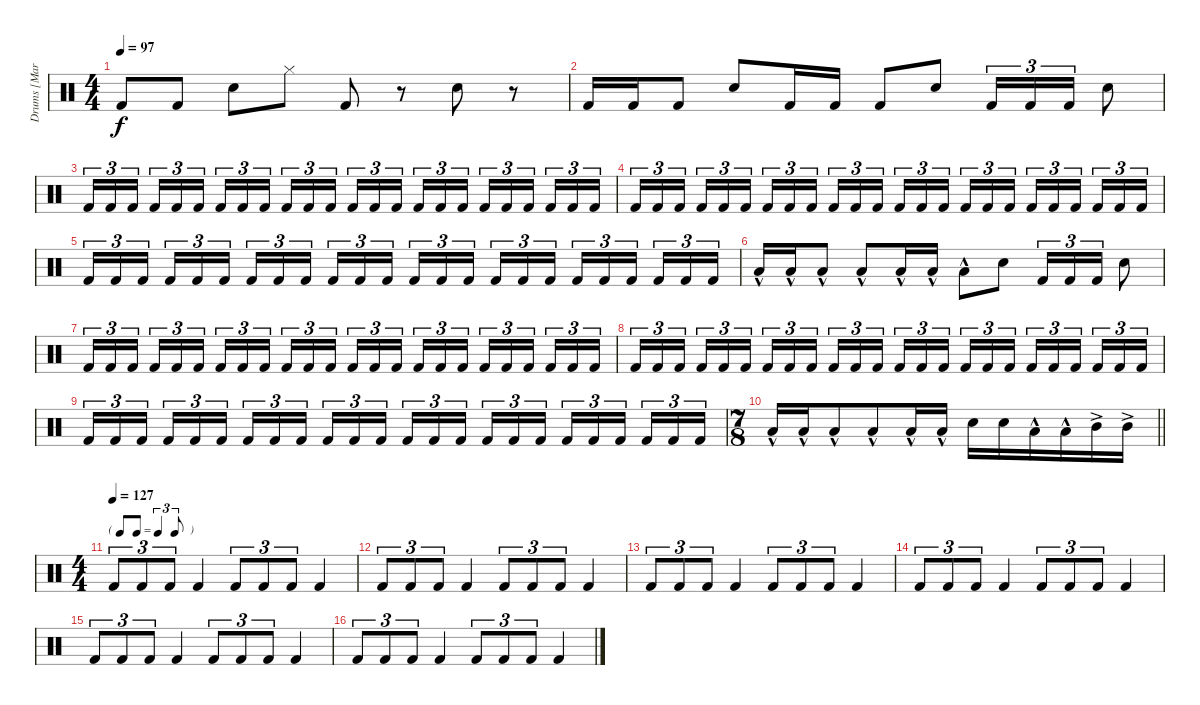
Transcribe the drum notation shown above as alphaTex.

\track ("Drums [Martin Lopez]" "Drums [Mar") {instrument percussion}
\staff {score}
\articulation defaults
\ts (4 4)
\tempo 97
\clef neutral
\ks c "Kick (hit) 2".8{dy f} "Kick (hit) 2".8 "Snare (hit) 2".8 "Hi-Hat (closed)".8 "Kick (hit) 2".8
r.8 "Snare (hit) 2".8 r.8 |
"Kick (hit) 2".16 "Kick (hit) 2".16 "Kick (hit) 2".8 "Snare (hit) 2".8 "Kick (hit) 2".16 "Kick (hit) 2".16 "Kick (hit) 2".8 "Snare (hit) 2".8 "Kick (hit) 2".16{tu (3 2)} "Kick (hit) 2".16{tu (3 2)} "Kick (hit) 2".16{tu (3 2)} "Snare (hit) 2".8 |
"Kick (hit) 2".16{tu (3 2)} "Kick (hit) 2".16{tu (3 2)} "Kick (hit) 2".16{tu (3 2) beam splitsecondary} "Kick (hit) 2".16{tu (3 2)} "Kick (hit) 2".16{tu (3 2)} "Kick (hit) 2".16{tu (3 2)} "Kick (hit) 2".16{tu (3 2)} "Kick (hit) 2".16{tu (3 2)} "Kick (hit) 2".16{tu (3 2) beam splitsecondary} "Kick (hit) 2".16{tu (3 2)} "Kick (hit) 2".16{tu (3 2)} "Kick (hit) 2".16{tu (3 2)} "Kick (hit) 2".16{tu (3 2)} "Kick (hit) 2".16{tu (3 2)} "Kick (hit) 2".16{tu (3 2) beam splitsecondary} "Kick (hit) 2".16{tu (3 2)} "Kick (hit) 2".16{tu (3 2)} "Kick (hit) 2".16{tu (3 2)} "Kick (hit) 2".16{tu (3 2)} "Kick (hit) 2".16{tu (3 2)} "Kick (hit) 2".16{tu (3 2) beam splitsecondary} "Kick (hit) 2".16{tu (3 2)} "Kick (hit) 2".16{tu (3 2)} "Kick (hit) 2".16{tu (3 2)} |
"Kick (hit) 2".16{tu (3 2)} "Kick (hit) 2".16{tu (3 2)} "Kick (hit) 2".16{tu (3 2) beam splitsecondary} "Kick (hit) 2".16{tu (3 2)} "Kick (hit) 2".16{tu (3 2)} "Kick (hit) 2".16{tu (3 2)} "Kick (hit) 2".16{tu (3 2)} "Kick (hit) 2".16{tu (3 2)} "Kick (hit) 2".16{tu (3 2) beam splitsecondary} "Kick (hit) 2".16{tu (3 2)} "Kick (hit) 2".16{tu (3 2)} "Kick (hit) 2".16{tu (3 2)} "Kick (hit) 2".16{tu (3 2)} "Kick (hit) 2".16{tu (3 2)} "Kick (hit) 2".16{tu (3 2) beam splitsecondary} "Kick (hit) 2".16{tu (3 2)} "Kick (hit) 2".16{tu (3 2)} "Kick (hit) 2".16{tu (3 2)} "Kick (hit) 2".16{tu (3 2)} "Kick (hit) 2".16{tu (3 2)} "Kick (hit) 2".16{tu (3 2) beam splitsecondary} "Kick (hit) 2".16{tu (3 2)} "Kick (hit) 2".16{tu (3 2)} "Kick (hit) 2".16{tu (3 2)} |
"Kick (hit) 2".16{tu (3 2)} "Kick (hit) 2".16{tu (3 2)} "Kick (hit) 2".16{tu (3 2) beam splitsecondary} "Kick (hit) 2".16{tu (3 2)} "Kick (hit) 2".16{tu (3 2)} "Kick (hit) 2".16{tu (3 2)} "Kick (hit) 2".16{tu (3 2)} "Kick (hit) 2".16{tu (3 2)} "Kick (hit) 2".16{tu (3 2) beam splitsecondary} "Kick (hit) 2".16{tu (3 2)} "Kick (hit) 2".16{tu (3 2)} "Kick (hit) 2".16{tu (3 2)} "Kick (hit) 2".16{tu (3 2)} "Kick (hit) 2".16{tu (3 2)} "Kick (hit) 2".16{tu (3 2) beam splitsecondary} "Kick (hit) 2".16{tu (3 2)} "Kick (hit) 2".16{tu (3 2)} "Kick (hit) 2".16{tu (3 2)} "Kick (hit) 2".16{tu (3 2)} "Kick (hit) 2".16{tu (3 2)} "Kick (hit) 2".16{tu (3 2) beam splitsecondary} "Kick (hit) 2".16{tu (3 2)} "Kick (hit) 2".16{tu (3 2)} "Kick (hit) 2".16{tu (3 2)} |
"Low Floor Tom (hit)"{hac}.16 "Low Floor Tom (hit)"{hac}.16 "Low Floor Tom (hit)"{hac}.8 "Low Floor Tom (hit)"{hac}.8 "Low Floor Tom (hit)"{hac}.16 "Low Floor Tom (hit)"{hac}.16 "Low Floor Tom (hit)"{hac}.8 "Snare (hit) 2".8 "Kick (hit) 2".16{tu (3 2)} "Kick (hit) 2".16{tu (3 2)} "Kick (hit) 2".16{tu (3 2)} "Snare (hit) 2".8 |
"Kick (hit) 2".16{tu (3 2)} "Kick (hit) 2".16{tu (3 2)} "Kick (hit) 2".16{tu (3 2) beam splitsecondary} "Kick (hit) 2".16{tu (3 2)} "Kick (hit) 2".16{tu (3 2)} "Kick (hit) 2".16{tu (3 2)} "Kick (hit) 2".16{tu (3 2)} "Kick (hit) 2".16{tu (3 2)} "Kick (hit) 2".16{tu (3 2) beam splitsecondary} "Kick (hit) 2".16{tu (3 2)} "Kick (hit) 2".16{tu (3 2)} "Kick (hit) 2".16{tu (3 2)} "Kick (hit) 2".16{tu (3 2)} "Kick (hit) 2".16{tu (3 2)} "Kick (hit) 2".16{tu (3 2) beam splitsecondary} "Kick (hit) 2".16{tu (3 2)} "Kick (hit) 2".16{tu (3 2)} "Kick (hit) 2".16{tu (3 2)} "Kick (hit) 2".16{tu (3 2)} "Kick (hit) 2".16{tu (3 2)} "Kick (hit) 2".16{tu (3 2) beam splitsecondary} "Kick (hit) 2".16{tu (3 2)} "Kick (hit) 2".16{tu (3 2)} "Kick (hit) 2".16{tu (3 2)} |
"Kick (hit) 2".16{tu (3 2)} "Kick (hit) 2".16{tu (3 2)} "Kick (hit) 2".16{tu (3 2) beam splitsecondary} "Kick (hit) 2".16{tu (3 2)} "Kick (hit) 2".16{tu (3 2)} "Kick (hit) 2".16{tu (3 2)} "Kick (hit) 2".16{tu (3 2)} "Kick (hit) 2".16{tu (3 2)} "Kick (hit) 2".16{tu (3 2) beam splitsecondary} "Kick (hit) 2".16{tu (3 2)} "Kick (hit) 2".16{tu (3 2)} "Kick (hit) 2".16{tu (3 2)} "Kick (hit) 2".16{tu (3 2)} "Kick (hit) 2".16{tu (3 2)} "Kick (hit) 2".16{tu (3 2) beam splitsecondary} "Kick (hit) 2".16{tu (3 2)} "Kick (hit) 2".16{tu (3 2)} "Kick (hit) 2".16{tu (3 2)} "Kick (hit) 2".16{tu (3 2)} "Kick (hit) 2".16{tu (3 2)} "Kick (hit) 2".16{tu (3 2) beam splitsecondary} "Kick (hit) 2".16{tu (3 2)} "Kick (hit) 2".16{tu (3 2)} "Kick (hit) 2".16{tu (3 2)} |
"Kick (hit) 2".16{tu (3 2)} "Kick (hit) 2".16{tu (3 2)} "Kick (hit) 2".16{tu (3 2) beam splitsecondary} "Kick (hit) 2".16{tu (3 2)} "Kick (hit) 2".16{tu (3 2)} "Kick (hit) 2".16{tu (3 2)} "Kick (hit) 2".16{tu (3 2)} "Kick (hit) 2".16{tu (3 2)} "Kick (hit) 2".16{tu (3 2) beam splitsecondary} "Kick (hit) 2".16{tu (3 2)} "Kick (hit) 2".16{tu (3 2)} "Kick (hit) 2".16{tu (3 2)} "Kick (hit) 2".16{tu (3 2)} "Kick (hit) 2".16{tu (3 2)} "Kick (hit) 2".16{tu (3 2) beam splitsecondary} "Kick (hit) 2".16{tu (3 2)} "Kick (hit) 2".16{tu (3 2)} "Kick (hit) 2".16{tu (3 2)} "Kick (hit) 2".16{tu (3 2)} "Kick (hit) 2".16{tu (3 2)} "Kick (hit) 2".16{tu (3 2) beam splitsecondary} "Kick (hit) 2".16{tu (3 2)} "Kick (hit) 2".16{tu (3 2)} "Kick (hit) 2".16{tu (3 2)} |
\ts (7 8)
\barLineRight lightlight "Low Floor Tom (hit)"{hac}.16 "Low Floor Tom (hit)"{hac}.16 "Low Floor Tom (hit)"{hac}.8 "Low Floor Tom (hit)"{hac}.8 "Low Floor Tom (hit)"{hac}.16 "Low Floor Tom (hit)"{hac}.16 "Snare (hit) 2".16 "Snare (hit) 2".16 "Low Tom (hit)"{hac}.16 "Low Tom (hit)"{hac}.16 "Mid Tom (hit)"{ac}.16 "Mid Tom (hit)"{ac}.16
|
\ts (4 4)
\tf triplet8th
\tempo (127)
"Kick (hit) 2".8{tu (3 2)} "Kick (hit) 2".8{tu (3 2)} "Kick (hit) 2".8{tu (3 2)} "Kick (hit) 2".4 "Kick (hit) 2".8{tu (3 2)} "Kick (hit) 2".8{tu (3 2)} "Kick (hit) 2".8{tu (3 2)} "Kick (hit) 2".4 |
"Kick (hit) 2".8{tu (3 2)} "Kick (hit) 2".8{tu (3 2)} "Kick (hit) 2".8{tu (3 2)} "Kick (hit) 2".4 "Kick (hit) 2".8{tu (3 2)} "Kick (hit) 2".8{tu (3 2)} "Kick (hit) 2".8{tu (3 2)} "Kick (hit) 2".4 |
"Kick (hit) 2".8{tu (3 2)} "Kick (hit) 2".8{tu (3 2)} "Kick (hit) 2".8{tu (3 2)} "Kick (hit) 2".4 "Kick (hit) 2".8{tu (3 2)} "Kick (hit) 2".8{tu (3 2)} "Kick (hit) 2".8{tu (3 2)} "Kick (hit) 2".4 |
"Kick (hit) 2".8{tu (3 2)} "Kick (hit) 2".8{tu (3 2)} "Kick (hit) 2".8{tu (3 2)} "Kick (hit) 2".4 "Kick (hit) 2".8{tu (3 2)} "Kick (hit) 2".8{tu (3 2)} "Kick (hit) 2".8{tu (3 2)} "Kick (hit) 2".4 |
"Kick (hit) 2".8{tu (3 2)} "Kick (hit) 2".8{tu (3 2)} "Kick (hit) 2".8{tu (3 2)} "Kick (hit) 2".4 "Kick (hit) 2".8{tu (3 2)} "Kick (hit) 2".8{tu (3 2)} "Kick (hit) 2".8{tu (3 2)} "Kick (hit) 2".4 |
"Kick (hit) 2".8{tu (3 2)} "Kick (hit) 2".8{tu (3 2)} "Kick (hit) 2".8{tu (3 2)} "Kick (hit) 2".4 "Kick (hit) 2".8{tu (3 2)} "Kick (hit) 2".8{tu (3 2)} "Kick (hit) 2".8{tu (3 2)} "Kick (hit) 2".4
